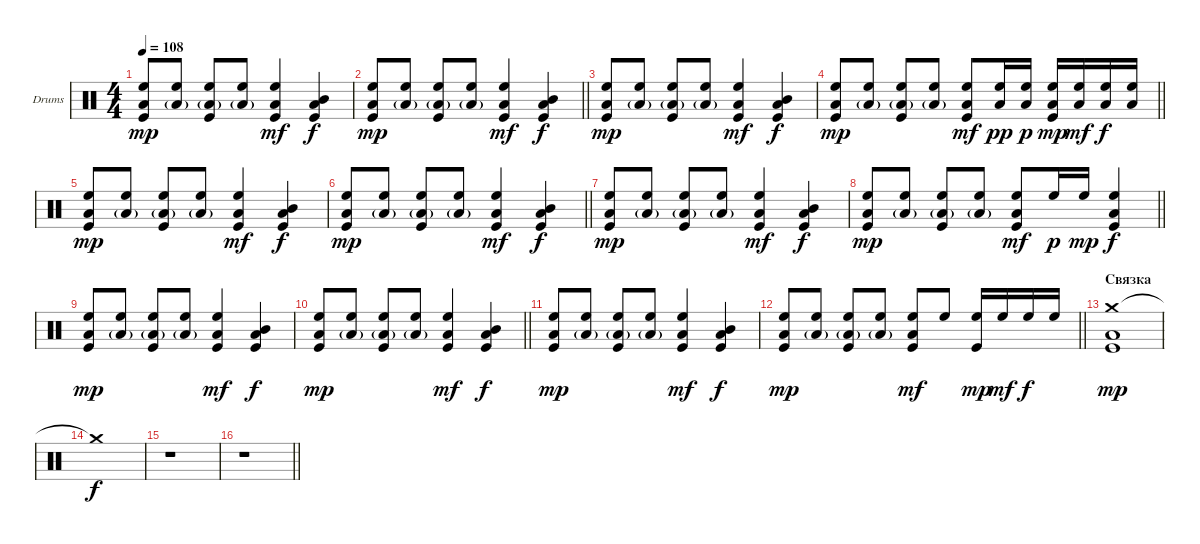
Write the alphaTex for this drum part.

\bracketExtendMode groupsimilarinstruments
\firstSystemTrackNameOrientation horizontal
\otherSystemsTrackNameOrientation horizontal
\track ("Е. Кулаков" "Drums") {instrument percussion}
\staff {score}
\articulation defaults
\ts (4 4)
\tempo 108
\clef neutral
\ks c
("High Floor Tom (hit)" "Low Tom (hit)" "Kick (hit)").8{dy mp} ("High Floor Tom (hit)" "Low Tom (hit)"{g}).8 ("High Floor Tom (hit)" "Low Tom (hit)"{g} "Kick (hit)").8 ("High Floor Tom (hit)" "Low Tom (hit)"{g}).8 ("High Floor Tom (hit)" "Low Tom (hit)" "Kick (hit)").4{dy mf} ("Low Tom (hit)" "Mid Tom (hit)" "Kick (hit)").4{dy f} |
\barLineRight lightlight
("High Floor Tom (hit)" "Low Tom (hit)" "Kick (hit)").8{dy mp} ("High Floor Tom (hit)" "Low Tom (hit)"{g}).8 ("High Floor Tom (hit)" "Low Tom (hit)"{g} "Kick (hit)").8 ("High Floor Tom (hit)" "Low Tom (hit)"{g}).8 ("High Floor Tom (hit)" "Low Tom (hit)" "Kick (hit)").4{dy mf} ("Low Tom (hit)" "Mid Tom (hit)" "Kick (hit)").4{dy f} |
("High Floor Tom (hit)" "Low Tom (hit)" "Kick (hit)").8{dy mp} ("High Floor Tom (hit)" "Low Tom (hit)"{g}).8 ("High Floor Tom (hit)" "Low Tom (hit)"{g} "Kick (hit)").8 ("High Floor Tom (hit)" "Low Tom (hit)"{g}).8 ("High Floor Tom (hit)" "Low Tom (hit)" "Kick (hit)").4{dy mf} ("Low Tom (hit)" "Mid Tom (hit)" "Kick (hit)").4{dy f} |
\barLineRight lightlight
("High Floor Tom (hit)" "Low Tom (hit)" "Kick (hit)").8{dy mp} ("High Floor Tom (hit)" "Low Tom (hit)"{g}).8 ("High Floor Tom (hit)" "Low Tom (hit)"{g} "Kick (hit)").8 ("High Floor Tom (hit)" "Low Tom (hit)"{g}).8 ("High Floor Tom (hit)" "Low Tom (hit)" "Kick (hit)").8{dy mf} ("High Floor Tom (hit)" "Low Tom (hit)").16{dy pp} ("High Floor Tom (hit)" "Low Tom (hit)").16{dy p} ("High Floor Tom (hit)" "Low Tom (hit)" "Kick (hit)").16{dy mp} ("High Floor Tom (hit)" "Low Tom (hit)").16{dy mf} ("High Floor Tom (hit)" "Low Tom (hit)").16{dy f} ("High Floor Tom (hit)" "Low Tom (hit)").16 |
("High Floor Tom (hit)" "Low Tom (hit)" "Kick (hit)").8{dy mp} ("High Floor Tom (hit)" "Low Tom (hit)"{g}).8 ("High Floor Tom (hit)" "Low Tom (hit)"{g} "Kick (hit)").8 ("High Floor Tom (hit)" "Low Tom (hit)"{g}).8 ("High Floor Tom (hit)" "Low Tom (hit)" "Kick (hit)").4{dy mf} ("Low Tom (hit)" "Mid Tom (hit)" "Kick (hit)").4{dy f} |
\barLineRight lightlight
("High Floor Tom (hit)" "Low Tom (hit)" "Kick (hit)").8{dy mp} ("High Floor Tom (hit)" "Low Tom (hit)"{g}).8 ("High Floor Tom (hit)" "Low Tom (hit)"{g} "Kick (hit)").8 ("High Floor Tom (hit)" "Low Tom (hit)"{g}).8 ("High Floor Tom (hit)" "Low Tom (hit)" "Kick (hit)").4{dy mf} ("Low Tom (hit)" "Mid Tom (hit)" "Kick (hit)").4{dy f} |
("High Floor Tom (hit)" "Low Tom (hit)" "Kick (hit)").8{dy mp} ("High Floor Tom (hit)" "Low Tom (hit)"{g}).8 ("High Floor Tom (hit)" "Low Tom (hit)"{g} "Kick (hit)").8 ("High Floor Tom (hit)" "Low Tom (hit)"{g}).8 ("High Floor Tom (hit)" "Low Tom (hit)" "Kick (hit)").4{dy mf} ("Low Tom (hit)" "Mid Tom (hit)" "Kick (hit)").4{dy f} |
\barLineRight lightlight
("High Floor Tom (hit)" "Low Tom (hit)" "Kick (hit)").8{dy mp} ("High Floor Tom (hit)" "Low Tom (hit)"{g}).8 ("High Floor Tom (hit)" "Low Tom (hit)"{g} "Kick (hit)").8 ("High Floor Tom (hit)" "Low Tom (hit)"{g}).8 ("High Floor Tom (hit)" "Low Tom (hit)" "Kick (hit)").8{dy mf} "High Floor Tom (hit)".16{dy p} "High Floor Tom (hit)".16{dy mp} ("High Floor Tom (hit)" "Low Tom (hit)" "Kick (hit)").4{dy f} |
("High Floor Tom (hit)" "Low Tom (hit)" "Kick (hit)").8{dy mp} ("High Floor Tom (hit)" "Low Tom (hit)"{g}).8 ("High Floor Tom (hit)" "Low Tom (hit)"{g} "Kick (hit)").8 ("High Floor Tom (hit)" "Low Tom (hit)"{g}).8 ("High Floor Tom (hit)" "Low Tom (hit)" "Kick (hit)").4{dy mf} ("Low Tom (hit)" "Mid Tom (hit)" "Kick (hit)").4{dy f} |
\barLineRight lightlight
("High Floor Tom (hit)" "Low Tom (hit)" "Kick (hit)").8{dy mp} ("High Floor Tom (hit)" "Low Tom (hit)"{g}).8 ("High Floor Tom (hit)" "Low Tom (hit)"{g} "Kick (hit)").8 ("High Floor Tom (hit)" "Low Tom (hit)"{g}).8 ("High Floor Tom (hit)" "Low Tom (hit)" "Kick (hit)").4{dy mf} ("Low Tom (hit)" "Mid Tom (hit)" "Kick (hit)").4{dy f} |
("High Floor Tom (hit)" "Low Tom (hit)" "Kick (hit)").8{dy mp} ("High Floor Tom (hit)" "Low Tom (hit)"{g}).8 ("High Floor Tom (hit)" "Low Tom (hit)"{g} "Kick (hit)").8 ("High Floor Tom (hit)" "Low Tom (hit)"{g}).8 ("High Floor Tom (hit)" "Low Tom (hit)" "Kick (hit)").4{dy mf} ("Low Tom (hit)" "Mid Tom (hit)" "Kick (hit)").4{dy f} |
\barLineRight lightlight
("High Floor Tom (hit)" "Low Tom (hit)" "Kick (hit)").8{dy mp} ("High Floor Tom (hit)" "Low Tom (hit)"{g}).8 ("High Floor Tom (hit)" "Low Tom (hit)"{g} "Kick (hit)").8 ("High Floor Tom (hit)" "Low Tom (hit)"{g}).8 ("High Floor Tom (hit)" "Low Tom (hit)" "Kick (hit)").8{dy mf} "High Floor Tom (hit)".8 ("High Floor Tom (hit)" "Kick (hit)").16{dy mp} "High Floor Tom (hit)".16{dy mf} "High Floor Tom (hit)".16{dy f} "High Floor Tom (hit)".16 |
\section ("" "Связка")
("Crash medium (hit)" "Low Tom (hit)" "Kick (hit)").1{dy mp} |
"Crash medium (hit)"{t}.1{dy f} |
r.1 |
\barLineRight lightlight
r.1
